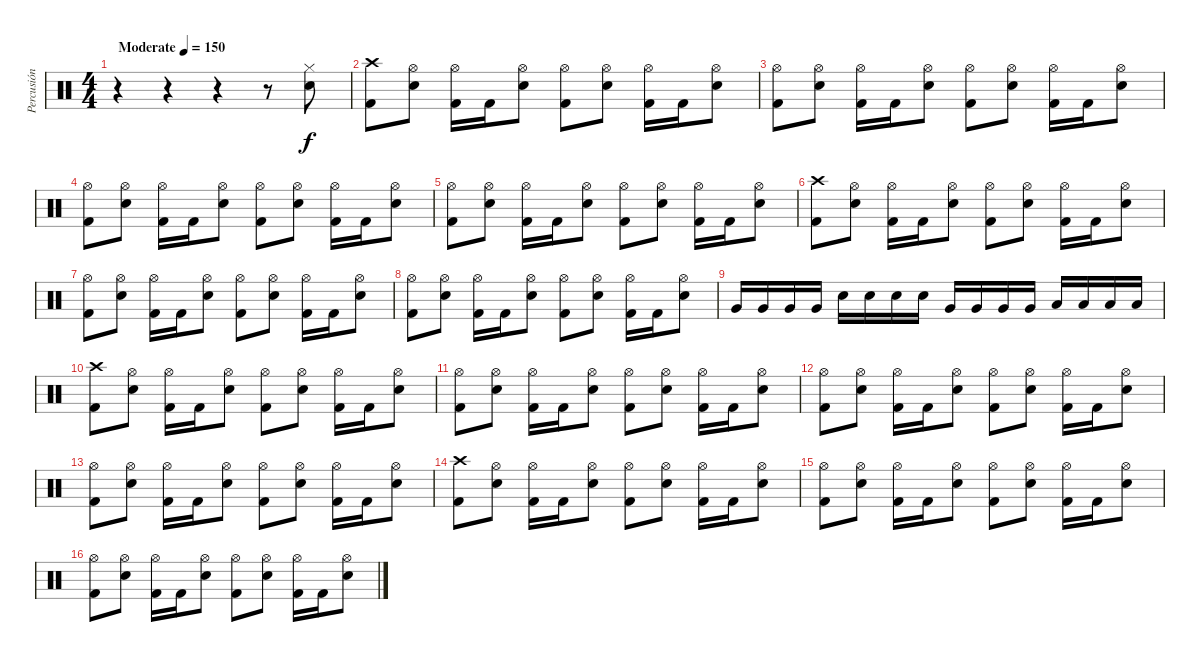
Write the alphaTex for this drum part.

\track ("Percusión" "Percusión") {instrument percussion}
\staff {score}
\articulation defaults
\ts (4 4)
\tempo (150 "Moderate")
\clef neutral
\ks c
r.4{dy f} r.4 r.4 r.8 ("Hi-Hat (closed)" "Electric Snare (hit)").8 |
("Crash high (hit)" "Kick (hit) 2").8 ("Hi-Hat (open)" "Electric Snare (hit)").8 ("Hi-Hat (open)" "Kick (hit) 2").16 "Kick (hit) 2".16 ("Hi-Hat (open)" "Electric Snare (hit)").8 ("Hi-Hat (open)" "Kick (hit) 2").8 ("Hi-Hat (open)" "Electric Snare (hit)").8 ("Hi-Hat (open)" "Kick (hit) 2").16 "Kick (hit) 2".16 ("Hi-Hat (open)" "Electric Snare (hit)").8 |
("Hi-Hat (open)" "Kick (hit) 2").8 ("Hi-Hat (open)" "Electric Snare (hit)").8 ("Hi-Hat (open)" "Kick (hit) 2").16 "Kick (hit) 2".16 ("Hi-Hat (open)" "Electric Snare (hit)").8 ("Hi-Hat (open)" "Kick (hit) 2").8 ("Hi-Hat (open)" "Electric Snare (hit)").8 ("Hi-Hat (open)" "Kick (hit) 2").16 "Kick (hit) 2".16 ("Hi-Hat (open)" "Electric Snare (hit)").8 |
("Hi-Hat (open)" "Kick (hit) 2").8 ("Hi-Hat (open)" "Electric Snare (hit)").8 ("Hi-Hat (open)" "Kick (hit) 2").16 "Kick (hit) 2".16 ("Hi-Hat (open)" "Electric Snare (hit)").8 ("Hi-Hat (open)" "Kick (hit) 2").8 ("Hi-Hat (open)" "Electric Snare (hit)").8 ("Hi-Hat (open)" "Kick (hit) 2").16 "Kick (hit) 2".16 ("Hi-Hat (open)" "Electric Snare (hit)").8 |
("Hi-Hat (open)" "Kick (hit) 2").8 ("Hi-Hat (open)" "Electric Snare (hit)").8 ("Hi-Hat (open)" "Kick (hit) 2").16 "Kick (hit) 2".16 ("Hi-Hat (open)" "Electric Snare (hit)").8 ("Hi-Hat (open)" "Kick (hit) 2").8 ("Hi-Hat (open)" "Electric Snare (hit)").8 ("Hi-Hat (open)" "Kick (hit) 2").16 "Kick (hit) 2".16 ("Hi-Hat (open)" "Electric Snare (hit)").8 |
("Crash high (hit)" "Kick (hit) 2").8 ("Hi-Hat (open)" "Electric Snare (hit)").8 ("Hi-Hat (open)" "Kick (hit) 2").16 "Kick (hit) 2".16 ("Hi-Hat (open)" "Electric Snare (hit)").8 ("Hi-Hat (open)" "Kick (hit) 2").8 ("Hi-Hat (open)" "Electric Snare (hit)").8 ("Hi-Hat (open)" "Kick (hit) 2").16 "Kick (hit) 2".16 ("Hi-Hat (open)" "Electric Snare (hit)").8 |
("Hi-Hat (open)" "Kick (hit) 2").8 ("Hi-Hat (open)" "Electric Snare (hit)").8 ("Hi-Hat (open)" "Kick (hit) 2").16 "Kick (hit) 2".16 ("Hi-Hat (open)" "Electric Snare (hit)").8 ("Hi-Hat (open)" "Kick (hit) 2").8 ("Hi-Hat (open)" "Electric Snare (hit)").8 ("Hi-Hat (open)" "Kick (hit) 2").16 "Kick (hit) 2".16 ("Hi-Hat (open)" "Electric Snare (hit)").8 |
("Hi-Hat (open)" "Kick (hit) 2").8 ("Hi-Hat (open)" "Electric Snare (hit)").8 ("Hi-Hat (open)" "Kick (hit) 2").16 "Kick (hit) 2".16 ("Hi-Hat (open)" "Electric Snare (hit)").8 ("Hi-Hat (open)" "Kick (hit) 2").8 ("Hi-Hat (open)" "Electric Snare (hit)").8 ("Hi-Hat (open)" "Kick (hit) 2").16 "Kick (hit) 2".16 ("Hi-Hat (open)" "Electric Snare (hit)").8 |
"Very Low Tom (hit)".16 "Very Low Tom (hit)".16 "Very Low Tom (hit)".16 "Very Low Tom (hit)".16 "Electric Snare (hit)".16 "Electric Snare (hit)".16 "Electric Snare (hit)".16 "Electric Snare (hit)".16 "Very Low Tom (hit)".16 "Very Low Tom (hit)".16 "Very Low Tom (hit)".16 "Very Low Tom (hit)".16 "Low Tom (hit)".16 "Low Tom (hit)".16 "Low Tom (hit)".16 "Low Tom (hit)".16 |
("Crash high (hit)" "Kick (hit) 2").8 ("Hi-Hat (open)" "Electric Snare (hit)").8 ("Hi-Hat (open)" "Kick (hit) 2").16 "Kick (hit) 2".16 ("Hi-Hat (open)" "Electric Snare (hit)").8 ("Hi-Hat (open)" "Kick (hit) 2").8 ("Hi-Hat (open)" "Electric Snare (hit)").8 ("Hi-Hat (open)" "Kick (hit) 2").16 "Kick (hit) 2".16 ("Hi-Hat (open)" "Electric Snare (hit)").8 |
("Hi-Hat (open)" "Kick (hit) 2").8 ("Hi-Hat (open)" "Electric Snare (hit)").8 ("Hi-Hat (open)" "Kick (hit) 2").16 "Kick (hit) 2".16 ("Hi-Hat (open)" "Electric Snare (hit)").8 ("Hi-Hat (open)" "Kick (hit) 2").8 ("Hi-Hat (open)" "Electric Snare (hit)").8 ("Hi-Hat (open)" "Kick (hit) 2").16 "Kick (hit) 2".16 ("Hi-Hat (open)" "Electric Snare (hit)").8 |
("Hi-Hat (open)" "Kick (hit) 2").8 ("Hi-Hat (open)" "Electric Snare (hit)").8 ("Hi-Hat (open)" "Kick (hit) 2").16 "Kick (hit) 2".16 ("Hi-Hat (open)" "Electric Snare (hit)").8 ("Hi-Hat (open)" "Kick (hit) 2").8 ("Hi-Hat (open)" "Electric Snare (hit)").8 ("Hi-Hat (open)" "Kick (hit) 2").16 "Kick (hit) 2".16 ("Hi-Hat (open)" "Electric Snare (hit)").8 |
("Hi-Hat (open)" "Kick (hit) 2").8 ("Hi-Hat (open)" "Electric Snare (hit)").8 ("Hi-Hat (open)" "Kick (hit) 2").16 "Kick (hit) 2".16 ("Hi-Hat (open)" "Electric Snare (hit)").8 ("Hi-Hat (open)" "Kick (hit) 2").8 ("Hi-Hat (open)" "Electric Snare (hit)").8 ("Hi-Hat (open)" "Kick (hit) 2").16 "Kick (hit) 2".16 ("Hi-Hat (open)" "Electric Snare (hit)").8 |
("Crash high (hit)" "Kick (hit) 2").8 ("Hi-Hat (open)" "Electric Snare (hit)").8 ("Hi-Hat (open)" "Kick (hit) 2").16 "Kick (hit) 2".16 ("Hi-Hat (open)" "Electric Snare (hit)").8 ("Hi-Hat (open)" "Kick (hit) 2").8 ("Hi-Hat (open)" "Electric Snare (hit)").8 ("Hi-Hat (open)" "Kick (hit) 2").16 "Kick (hit) 2".16 ("Hi-Hat (open)" "Electric Snare (hit)").8 |
("Hi-Hat (open)" "Kick (hit) 2").8 ("Hi-Hat (open)" "Electric Snare (hit)").8 ("Hi-Hat (open)" "Kick (hit) 2").16 "Kick (hit) 2".16 ("Hi-Hat (open)" "Electric Snare (hit)").8 ("Hi-Hat (open)" "Kick (hit) 2").8 ("Hi-Hat (open)" "Electric Snare (hit)").8 ("Hi-Hat (open)" "Kick (hit) 2").16 "Kick (hit) 2".16 ("Hi-Hat (open)" "Electric Snare (hit)").8 |
("Hi-Hat (open)" "Kick (hit) 2").8 ("Hi-Hat (open)" "Electric Snare (hit)").8 ("Hi-Hat (open)" "Kick (hit) 2").16 "Kick (hit) 2".16 ("Hi-Hat (open)" "Electric Snare (hit)").8 ("Hi-Hat (open)" "Kick (hit) 2").8 ("Hi-Hat (open)" "Electric Snare (hit)").8 ("Hi-Hat (open)" "Kick (hit) 2").16 "Kick (hit) 2".16 ("Hi-Hat (open)" "Electric Snare (hit)").8
